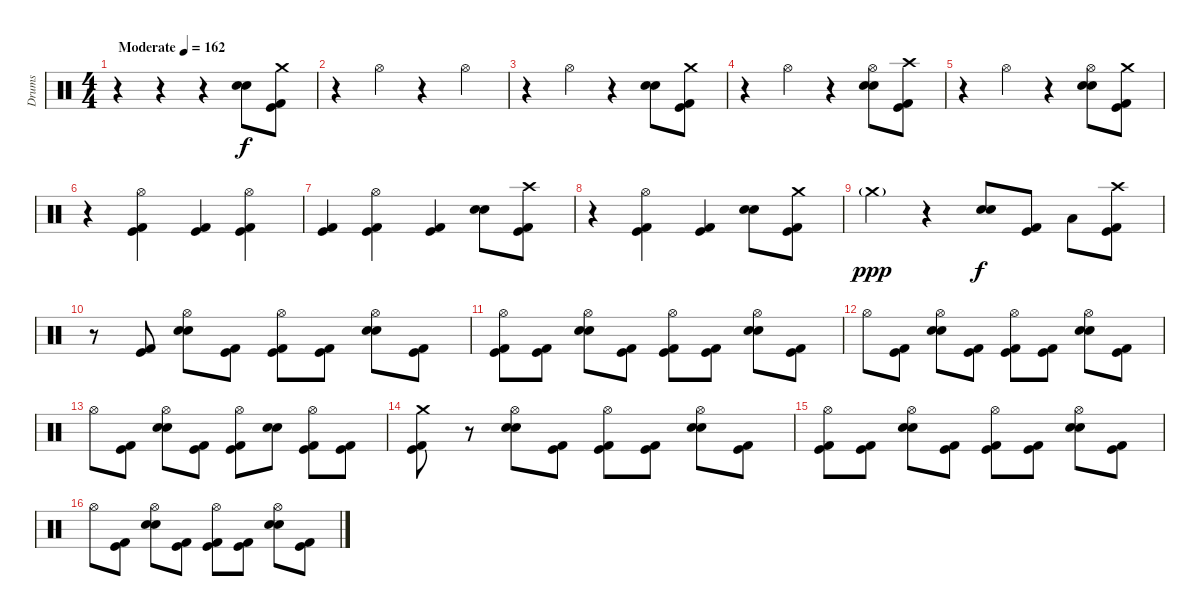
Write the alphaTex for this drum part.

\track ("Drums" "Drums") {instrument percussion}
\staff {score}
\articulation defaults
\ts (4 4)
\tempo (162 "Moderate")
\clef neutral
\ks c
r.4{dy f} r.4 r.4 ("Snare (hit) 2" "Electric Snare (hit)").8 ("Crash medium (hit)" "Kick (hit)" "Kick (hit) 2").8 |
r.4 "Hi-Hat (open)".4 r.4 "Hi-Hat (open)".4 |
r.4 "Hi-Hat (open)".4 r.4 ("Snare (hit) 2" "Electric Snare (hit)").8 ("Crash medium (hit)" "Kick (hit)" "Kick (hit) 2").8 |
r.4 "Hi-Hat (open)".4 r.4 ("Hi-Hat (open)" "Electric Snare (hit)" "Snare (hit) 2").8 ("Crash high (hit)" "Kick (hit)" "Kick (hit) 2").8 |
r.4 "Hi-Hat (open)".4 r.4 ("Hi-Hat (open)" "Electric Snare (hit)" "Snare (hit) 2").8 ("Crash medium (hit)" "Kick (hit)" "Kick (hit) 2").8 |
r.4 ("Hi-Hat (open)" "Kick (hit)" "Kick (hit) 2").4 ("Kick (hit)" "Kick (hit) 2").4 ("Hi-Hat (open)" "Kick (hit)" "Kick (hit) 2").4 |
("Kick (hit)" "Kick (hit) 2").4 ("Hi-Hat (open)" "Kick (hit)" "Kick (hit) 2").4 ("Kick (hit)" "Kick (hit) 2").4 ("Electric Snare (hit)" "Snare (hit) 2").8 ("Crash high (hit)" "Kick (hit)" "Kick (hit) 2").8 |
r.4 ("Hi-Hat (open)" "Kick (hit)" "Kick (hit) 2").4 ("Kick (hit)" "Kick (hit) 2").4 ("Electric Snare (hit)" "Snare (hit) 2").8 ("Crash medium (hit)" "Kick (hit)" "Kick (hit) 2").8 |
"Crash medium (hit)"{g}.4{dy ppp} r.4 ("Snare (hit) 2" "Electric Snare (hit)").8{dy f} ("Kick (hit)" "Kick (hit) 2").8 "Low Floor Tom (hit)".8 ("Crash high (hit)" "Kick (hit)" "Kick (hit) 2").8 |
r.8 ("Kick (hit)" "Kick (hit) 2").8 ("Hi-Hat (open)" "Snare (hit) 2" "Electric Snare (hit)").8 ("Kick (hit)" "Kick (hit) 2").8 ("Hi-Hat (open)" "Kick (hit)" "Kick (hit) 2").8 ("Kick (hit)" "Kick (hit) 2").8 ("Hi-Hat (open)" "Snare (hit) 2" "Electric Snare (hit)").8 ("Kick (hit)" "Kick (hit) 2").8 |
("Hi-Hat (open)" "Kick (hit)" "Kick (hit) 2").8 ("Kick (hit)" "Kick (hit) 2").8 ("Hi-Hat (open)" "Snare (hit) 2" "Electric Snare (hit)").8 ("Kick (hit)" "Kick (hit) 2").8 ("Hi-Hat (open)" "Kick (hit)" "Kick (hit) 2").8 ("Kick (hit)" "Kick (hit) 2").8 ("Hi-Hat (open)" "Snare (hit) 2" "Electric Snare (hit)").8 ("Kick (hit)" "Kick (hit) 2").8 |
"Hi-Hat (open)".8 ("Kick (hit)" "Kick (hit) 2").8 ("Hi-Hat (open)" "Snare (hit) 2" "Electric Snare (hit)").8 ("Kick (hit)" "Kick (hit) 2").8 ("Hi-Hat (open)" "Kick (hit)" "Kick (hit) 2").8 ("Kick (hit)" "Kick (hit) 2").8 ("Hi-Hat (open)" "Snare (hit) 2" "Electric Snare (hit)").8 ("Kick (hit)" "Kick (hit) 2").8 |
"Hi-Hat (open)".8 ("Kick (hit)" "Kick (hit) 2").8 ("Hi-Hat (open)" "Snare (hit) 2" "Electric Snare (hit)").8 ("Kick (hit)" "Kick (hit) 2").8 ("Hi-Hat (open)" "Kick (hit)" "Kick (hit) 2").8 ("Snare (hit) 2" "Electric Snare (hit)").8 ("Hi-Hat (open)" "Kick (hit)" "Kick (hit) 2").8 ("Kick (hit)" "Kick (hit) 2").8 |
("Crash medium (hit)" "Kick (hit)" "Kick (hit) 2").8 r.8 ("Hi-Hat (open)" "Snare (hit) 2" "Electric Snare (hit)").8 ("Kick (hit)" "Kick (hit) 2").8 ("Hi-Hat (open)" "Kick (hit)" "Kick (hit) 2").8 ("Kick (hit)" "Kick (hit) 2").8 ("Hi-Hat (open)" "Snare (hit) 2" "Electric Snare (hit)").8 ("Kick (hit)" "Kick (hit) 2").8 |
("Hi-Hat (open)" "Kick (hit)" "Kick (hit) 2").8 ("Kick (hit)" "Kick (hit) 2").8 ("Hi-Hat (open)" "Snare (hit) 2" "Electric Snare (hit)").8 ("Kick (hit)" "Kick (hit) 2").8 ("Hi-Hat (open)" "Kick (hit)" "Kick (hit) 2").8 ("Kick (hit)" "Kick (hit) 2").8 ("Hi-Hat (open)" "Snare (hit) 2" "Electric Snare (hit)").8 ("Kick (hit)" "Kick (hit) 2").8 |
"Hi-Hat (open)".8 ("Kick (hit)" "Kick (hit) 2").8 ("Hi-Hat (open)" "Snare (hit) 2" "Electric Snare (hit)").8 ("Kick (hit)" "Kick (hit) 2").8 ("Hi-Hat (open)" "Kick (hit)" "Kick (hit) 2").8 ("Kick (hit)" "Kick (hit) 2").8 ("Hi-Hat (open)" "Snare (hit) 2" "Electric Snare (hit)").8 ("Kick (hit)" "Kick (hit) 2").8
